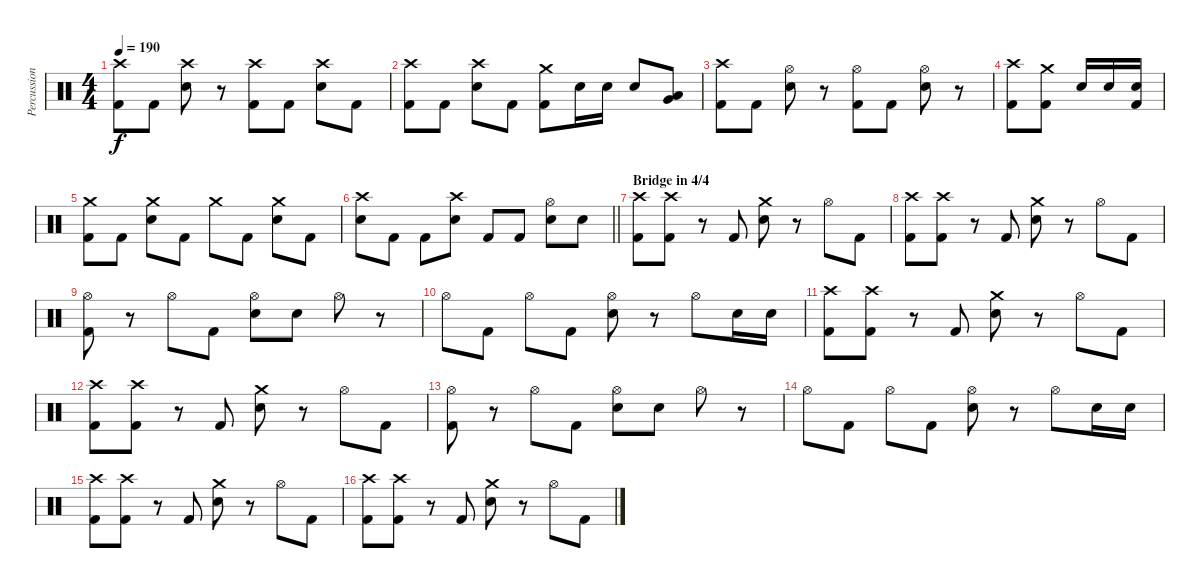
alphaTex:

\track ("Percussion" "Percussion") {instrument percussion}
\staff {score}
\articulation defaults
\ts (4 4)
\tempo 190
\clef neutral
\ks c
("Crash high (hit)" "Kick (hit) 2").8{dy f} "Kick (hit) 2".8 ("Crash high (hit)" "Electric Snare (hit)").8 r.8 ("Crash high (hit)" "Kick (hit) 2").8 "Kick (hit) 2".8 ("Crash high (hit)" "Electric Snare (hit)").8 "Kick (hit) 2".8 |
("Crash high (hit)" "Kick (hit) 2").8 "Kick (hit) 2".8 ("Crash high (hit)" "Electric Snare (hit)").8 "Kick (hit) 2".8 ("Crash medium (hit)" "Kick (hit) 2").8 "Electric Snare (hit)".16 "Electric Snare (hit)".16 "Electric Snare (hit)".8 ("Very Low Tom (hit)" "Low Tom (hit)").8 |
("Crash high (hit)" "Kick (hit) 2").8 "Kick (hit) 2".8 ("Hi-Hat (open)" "Electric Snare (hit)").8 r.8 ("Hi-Hat (open)" "Kick (hit) 2").8 "Kick (hit) 2".8 ("Hi-Hat (open)" "Electric Snare (hit)").8 r.8 |
("Crash high (hit)" "Kick (hit) 2").8 ("Crash medium (hit)" "Kick (hit) 2").8 "Electric Snare (hit)".16 "Electric Snare (hit)".16 ("Electric Snare (hit)" "Kick (hit) 2").16 |
("Crash medium (hit)" "Kick (hit) 2").8 "Kick (hit) 2".8 ("Crash medium (hit)" "Electric Snare (hit)").8 "Kick (hit) 2".8 "Crash medium (hit)".8 "Kick (hit) 2".8 ("Crash medium (hit)" "Electric Snare (hit)").8 "Kick (hit) 2".8 |
\barLineRight lightlight
("Crash high (hit)" "Electric Snare (hit)").8 "Kick (hit) 2".8 "Kick (hit) 2".8 ("Crash high (hit)" "Electric Snare (hit)").8 "Kick (hit) 2".8 "Kick (hit) 2".8 ("Hi-Hat (open)" "Electric Snare (hit)").8 "Electric Snare (hit)".8 |
\section ("" "Bridge in 4/4")
("Crash high (hit)" "Kick (hit) 2").8 ("Crash high (hit)" "Kick (hit) 2").8 r.8 "Kick (hit) 2".8 ("Crash medium (hit)" "Electric Snare (hit)").8 r.8 "Hi-Hat (open)".8 "Kick (hit) 2".8 |
("Crash high (hit)" "Kick (hit) 2").8 ("Crash high (hit)" "Kick (hit) 2").8 r.8 "Kick (hit) 2".8 ("Crash medium (hit)" "Electric Snare (hit)").8 r.8 "Hi-Hat (open)".8 "Kick (hit) 2".8 |
("Hi-Hat (open)" "Kick (hit) 2").8 r.8 "Hi-Hat (open)".8 "Kick (hit) 2".8 ("Hi-Hat (open)" "Electric Snare (hit)").8 "Electric Snare (hit)".8 "Hi-Hat (open)".8 r.8 |
"Hi-Hat (open)".8 "Kick (hit) 2".8 "Hi-Hat (open)".8 "Kick (hit) 2".8 ("Hi-Hat (open)" "Electric Snare (hit)").8 r.8 "Hi-Hat (open)".8 "Electric Snare (hit)".16 "Electric Snare (hit)".16 |
("Crash high (hit)" "Kick (hit) 2").8 ("Crash high (hit)" "Kick (hit) 2").8 r.8 "Kick (hit) 2".8 ("Crash medium (hit)" "Electric Snare (hit)").8 r.8 "Hi-Hat (open)".8 "Kick (hit) 2".8 |
("Crash high (hit)" "Kick (hit) 2").8 ("Crash high (hit)" "Kick (hit) 2").8 r.8 "Kick (hit) 2".8 ("Crash medium (hit)" "Electric Snare (hit)").8 r.8 "Hi-Hat (open)".8 "Kick (hit) 2".8 |
("Hi-Hat (open)" "Kick (hit) 2").8 r.8 "Hi-Hat (open)".8 "Kick (hit) 2".8 ("Hi-Hat (open)" "Electric Snare (hit)").8 "Electric Snare (hit)".8 "Hi-Hat (open)".8 r.8 |
"Hi-Hat (open)".8 "Kick (hit) 2".8 "Hi-Hat (open)".8 "Kick (hit) 2".8 ("Hi-Hat (open)" "Electric Snare (hit)").8 r.8 "Hi-Hat (open)".8 "Electric Snare (hit)".16 "Electric Snare (hit)".16 |
("Crash high (hit)" "Kick (hit) 2").8 ("Crash high (hit)" "Kick (hit) 2").8 r.8 "Kick (hit) 2".8 ("Crash medium (hit)" "Electric Snare (hit)").8 r.8 "Hi-Hat (open)".8 "Kick (hit) 2".8 |
("Crash high (hit)" "Kick (hit) 2").8 ("Crash high (hit)" "Kick (hit) 2").8 r.8 "Kick (hit) 2".8 ("Crash medium (hit)" "Electric Snare (hit)").8 r.8 "Hi-Hat (open)".8 "Kick (hit) 2".8
